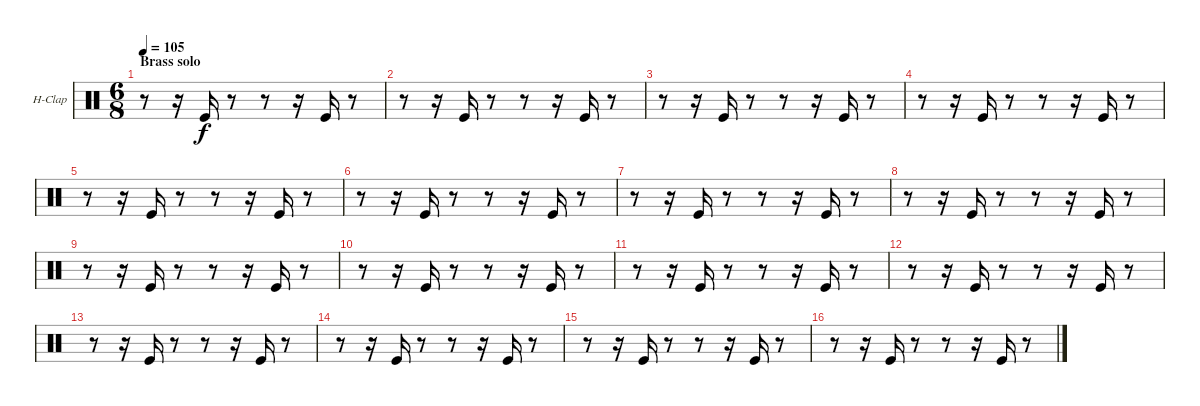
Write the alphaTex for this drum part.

\defaultSystemsLayout 4
\bracketExtendMode nobrackets
\firstSystemTrackNameOrientation horizontal
\otherSystemsTrackNameOrientation horizontal
\track ("Hand Clap" "H-Clap") {instrument percussion}
\staff {score}
\articulation defaults
\ts (6 8)
\section ("" "Brass solo")
\tempo 105
\clef neutral
\ks c
r.8{dy f} r.16 "Kick (hit)".16 r.8 r.8 r.16 "Kick (hit)".16 r.8 |
r.8 r.16 "Kick (hit)".16 r.8 r.8 r.16 "Kick (hit)".16 r.8 |
r.8 r.16 "Kick (hit)".16 r.8 r.8 r.16 "Kick (hit)".16 r.8 |
r.8 r.16 "Kick (hit)".16 r.8 r.8 r.16 "Kick (hit)".16 r.8 |
r.8 r.16 "Kick (hit)".16 r.8 r.8 r.16 "Kick (hit)".16 r.8 |
r.8 r.16 "Kick (hit)".16 r.8 r.8 r.16 "Kick (hit)".16 r.8 |
r.8 r.16 "Kick (hit)".16 r.8 r.8 r.16 "Kick (hit)".16 r.8 |
r.8 r.16 "Kick (hit)".16 r.8 r.8 r.16 "Kick (hit)".16 r.8 |
r.8 r.16 "Kick (hit)".16 r.8 r.8 r.16 "Kick (hit)".16 r.8 |
r.8 r.16 "Kick (hit)".16 r.8 r.8 r.16 "Kick (hit)".16 r.8 |
r.8 r.16 "Kick (hit)".16 r.8 r.8 r.16 "Kick (hit)".16 r.8 |
r.8 r.16 "Kick (hit)".16 r.8 r.8 r.16 "Kick (hit)".16 r.8 |
r.8 r.16 "Kick (hit)".16 r.8 r.8 r.16 "Kick (hit)".16 r.8 |
r.8 r.16 "Kick (hit)".16 r.8 r.8 r.16 "Kick (hit)".16 r.8 |
r.8 r.16 "Kick (hit)".16 r.8 r.8 r.16 "Kick (hit)".16 r.8 |
r.8 r.16 "Kick (hit)".16 r.8 r.8 r.16 "Kick (hit)".16 r.8
